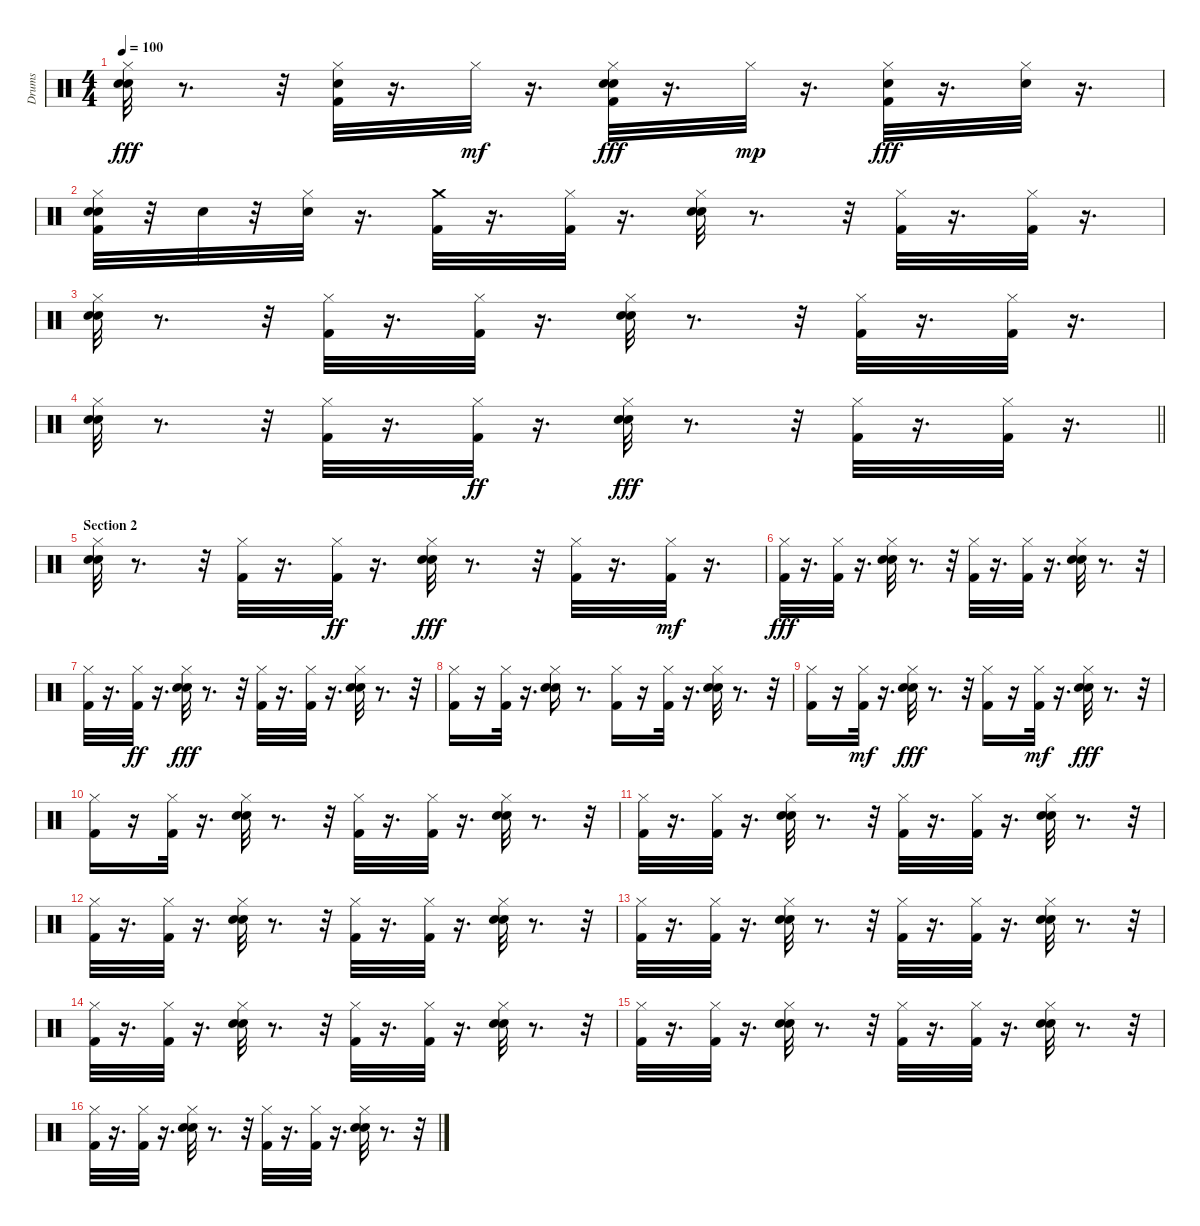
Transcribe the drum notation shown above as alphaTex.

\track ("Drums" "Drums") {instrument percussion}
\staff {score}
\articulation defaults
\ts (4 4)
\tempo 100
\clef neutral
\ks c
("Snare (hit) 2" "Hi-Hat (closed)" "Hand Clap (hit)").32{dy fff} r.8{d} r.32 ("Hi-Hat (closed)" "Snare (hit) 2" "Kick (hit) 2").32 r.16{d} "Hi-Hat (closed)".32{dy mf} r.16{d} ("Hi-Hat (closed)" "Hand Clap (hit)" "Kick (hit) 2" "Snare (hit) 2").32{dy fff} r.16{d} "Hi-Hat (closed)".32{dy mp} r.16{d} ("Hi-Hat (closed)" "Snare (hit) 2" "Kick (hit) 2").32{dy fff} r.16{d} ("Snare (hit) 2" "Hi-Hat (closed)").32 r.16{d} |
("Hand Clap (hit)" "Kick (hit) 2" "Hi-Hat (closed)" "Snare (hit) 2").32 r.32 "Snare (hit) 2".32 r.32 ("Snare (hit) 2" "Hi-Hat (closed)").32 r.16{d} ("Crash medium (hit)" "Kick (hit) 2").32 r.16{d} ("Hi-Hat (closed)" "Kick (hit) 2").32 r.16{d} ("Hand Clap (hit)" "Hi-Hat (closed)" "Snare (hit) 2").32 r.8{d} r.32 ("Kick (hit) 2" "Hi-Hat (closed)").32 r.16{d} ("Kick (hit) 2" "Hi-Hat (closed)").32 r.16{d} |
("Hi-Hat (closed)" "Hand Clap (hit)" "Snare (hit) 2").32 r.8{d} r.32 ("Hi-Hat (closed)" "Kick (hit) 2").32 r.16{d} ("Kick (hit) 2" "Hi-Hat (closed)").32 r.16{d} ("Snare (hit) 2" "Hi-Hat (closed)" "Hand Clap (hit)").32 r.8{d} r.32 ("Hi-Hat (closed)" "Kick (hit) 2").32 r.16{d} ("Hi-Hat (closed)" "Kick (hit) 2").32 r.16{d} |
\barLineRight lightlight
("Snare (hit) 2" "Hand Clap (hit)" "Hi-Hat (closed)").32 r.8{d} r.32 ("Hi-Hat (closed)" "Kick (hit) 2").32 r.16{d} ("Kick (hit) 2" "Hi-Hat (closed)").32{dy ff} r.16{d} ("Snare (hit) 2" "Hi-Hat (closed)" "Hand Clap (hit)").32{dy fff} r.8{d} r.32 ("Kick (hit) 2" "Hi-Hat (closed)").32 r.16{d} ("Hi-Hat (closed)" "Kick (hit) 2").32 r.16{d} |
\section ("" "Section 2")
("Hi-Hat (closed)" "Snare (hit) 2" "Hand Clap (hit)").32 r.8{d} r.32 ("Hi-Hat (closed)" "Kick (hit) 2").32 r.16{d} ("Kick (hit) 2" "Hi-Hat (closed)").32{dy ff} r.16{d} ("Hi-Hat (closed)" "Hand Clap (hit)" "Snare (hit) 2").32{dy fff} r.8{d} r.32 ("Hi-Hat (closed)" "Kick (hit) 2").32 r.16{d} ("Kick (hit) 2" "Hi-Hat (closed)").32{dy mf} r.16{d} |
("Hi-Hat (closed)" "Kick (hit) 2").32{dy fff} r.16{d} ("Hi-Hat (closed)" "Kick (hit) 2").32 r.16{d} ("Snare (hit) 2" "Hand Clap (hit)" "Hi-Hat (closed)").32 r.8{d} r.32 ("Kick (hit) 2" "Hi-Hat (closed)").32 r.16{d} ("Hi-Hat (closed)" "Kick (hit) 2").32 r.16{d} ("Hi-Hat (closed)" "Snare (hit) 2" "Hand Clap (hit)").32 r.8{d} r.32 |
("Kick (hit) 2" "Hi-Hat (closed)").32 r.16{d} ("Kick (hit) 2" "Hi-Hat (closed)").32{dy ff} r.16{d} ("Hi-Hat (closed)" "Snare (hit) 2" "Hand Clap (hit)").32{dy fff} r.8{d} r.32 ("Kick (hit) 2" "Hi-Hat (closed)").32 r.16{d} ("Kick (hit) 2" "Hi-Hat (closed)").32 r.16{d} ("Hand Clap (hit)" "Snare (hit) 2" "Hi-Hat (closed)").32 r.8{d} r.32 |
("Kick (hit) 2" "Hi-Hat (closed)").16 r.16 ("Hi-Hat (closed)" "Kick (hit) 2").32 r.16{d} ("Hi-Hat (closed)" "Hand Clap (hit)" "Snare (hit) 2").16 r.8{d} ("Hi-Hat (closed)" "Kick (hit) 2").16 r.16 ("Hi-Hat (closed)" "Kick (hit) 2").32 r.16{d} ("Snare (hit) 2" "Hand Clap (hit)" "Hi-Hat (closed)").32 r.8{d} r.32 |
("Kick (hit) 2" "Hi-Hat (closed)").16 r.16 ("Kick (hit) 2" "Hi-Hat (closed)").32{dy mf} r.16{d} ("Snare (hit) 2" "Hand Clap (hit)" "Hi-Hat (closed)").32{dy fff} r.8{d} r.32 ("Hi-Hat (closed)" "Kick (hit) 2").16 r.16 ("Kick (hit) 2" "Hi-Hat (closed)").32{dy mf} r.16{d} ("Hi-Hat (closed)" "Snare (hit) 2" "Hand Clap (hit)").32{dy fff} r.8{d} r.32 |
("Hi-Hat (closed)" "Kick (hit) 2").16 r.16 ("Hi-Hat (closed)" "Kick (hit) 2").32 r.16{d} ("Hand Clap (hit)" "Hi-Hat (closed)" "Snare (hit) 2").32 r.8{d} r.32 ("Hi-Hat (closed)" "Kick (hit) 2").32 r.16{d} ("Hi-Hat (closed)" "Kick (hit) 2").32 r.16{d} ("Hand Clap (hit)" "Snare (hit) 2" "Hi-Hat (closed)").32 r.8{d} r.32 |
("Hi-Hat (closed)" "Kick (hit) 2").32 r.16{d} ("Hi-Hat (closed)" "Kick (hit) 2").32 r.16{d} ("Hand Clap (hit)" "Snare (hit) 2" "Hi-Hat (closed)").32 r.8{d} r.32 ("Hi-Hat (closed)" "Kick (hit) 2").32 r.16{d} ("Hi-Hat (closed)" "Kick (hit) 2").32 r.16{d} ("Hand Clap (hit)" "Snare (hit) 2" "Hi-Hat (closed)").32 r.8{d} r.32 |
("Kick (hit) 2" "Hi-Hat (closed)").32 r.16{d} ("Hi-Hat (closed)" "Kick (hit) 2").32 r.16{d} ("Hand Clap (hit)" "Hi-Hat (closed)" "Snare (hit) 2").32 r.8{d} r.32 ("Hi-Hat (closed)" "Kick (hit) 2").32 r.16{d} ("Hi-Hat (closed)" "Kick (hit) 2").32 r.16{d} ("Hand Clap (hit)" "Hi-Hat (closed)" "Snare (hit) 2").32 r.8{d} r.32 |
("Hi-Hat (closed)" "Kick (hit) 2").32 r.16{d} ("Kick (hit) 2" "Hi-Hat (closed)").32 r.16{d} ("Hand Clap (hit)" "Snare (hit) 2" "Hi-Hat (closed)").32 r.8{d} r.32 ("Kick (hit) 2" "Hi-Hat (closed)").32 r.16{d} ("Kick (hit) 2" "Hi-Hat (closed)").32 r.16{d} ("Hi-Hat (closed)" "Hand Clap (hit)" "Snare (hit) 2").32 r.8{d} r.32 |
("Kick (hit) 2" "Hi-Hat (closed)").32 r.16{d} ("Kick (hit) 2" "Hi-Hat (closed)").32 r.16{d} ("Snare (hit) 2" "Hand Clap (hit)" "Hi-Hat (closed)").32 r.8{d} r.32 ("Kick (hit) 2" "Hi-Hat (closed)").32 r.16{d} ("Hi-Hat (closed)" "Kick (hit) 2").32 r.16{d} ("Hand Clap (hit)" "Snare (hit) 2" "Hi-Hat (closed)").32 r.8{d} r.32 |
("Hi-Hat (closed)" "Kick (hit) 2").32 r.16{d} ("Hi-Hat (closed)" "Kick (hit) 2").32 r.16{d} ("Snare (hit) 2" "Hand Clap (hit)" "Hi-Hat (closed)").32 r.8{d} r.32 ("Hi-Hat (closed)" "Kick (hit) 2").32 r.16{d} ("Hi-Hat (closed)" "Kick (hit) 2").32 r.16{d} ("Hand Clap (hit)" "Snare (hit) 2" "Hi-Hat (closed)").32 r.8{d} r.32 |
("Hi-Hat (closed)" "Kick (hit) 2").32 r.16{d} ("Kick (hit) 2" "Hi-Hat (closed)").32 r.16{d} ("Hand Clap (hit)" "Hi-Hat (closed)" "Snare (hit) 2").32 r.8{d} r.32 ("Hi-Hat (closed)" "Kick (hit) 2").32 r.16{d} ("Hi-Hat (closed)" "Kick (hit) 2").32 r.16{d} ("Snare (hit) 2" "Hand Clap (hit)" "Hi-Hat (closed)").32 r.8{d} r.32
